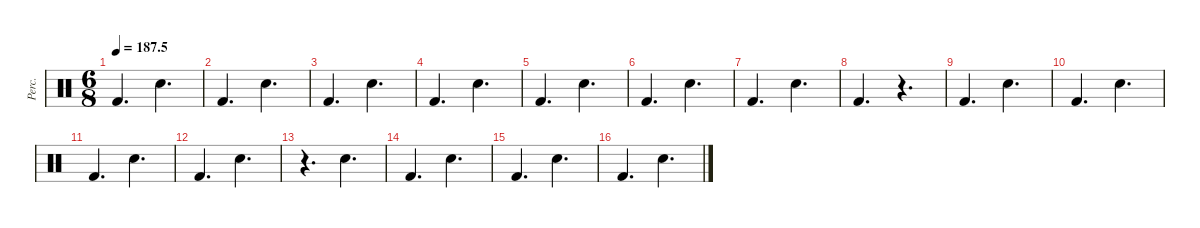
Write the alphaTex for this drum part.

\defaultSystemsLayout 4
\hideDynamics
\bracketExtendMode groupsimilarinstruments
\otherSystemsTrackNameOrientation horizontal
\track ("Percussions" "Perc.") {instrument percussion}
\staff {score}
\articulation defaults
\ts (6 8)
\tempo
187.5
\accidentals auto
\clef neutral
\ottava regular
\simile none
\ks c "Kick (hit) 2".4{d dy mf beam Up} "Snare (hit) 2".4{d beam Down}
|
"Kick (hit) 2".4{d beam Up} "Snare (hit) 2".4{d beam Down} |
"Kick (hit) 2".4{d beam Up} "Snare (hit) 2".4{d beam Down} |
"Kick (hit) 2".4{d beam Up} "Snare (hit) 2".4{d beam Down} |
"Kick (hit) 2".4{d beam Up} "Snare (hit) 2".4{d beam Down} |
"Kick (hit) 2".4{d beam Up} "Snare (hit) 2".4{d beam Down} |
"Kick (hit) 2".4{d beam Up} "Snare (hit) 2".4{d beam Down} |
"Kick (hit) 2".4{d beam Up} r.4{d beam Up} |
"Kick (hit) 2".4{d beam Up} "Snare (hit) 2".4{d beam Down} |
"Kick (hit) 2".4{d beam Up} "Snare (hit) 2".4{d beam Down} |
"Kick (hit) 2".4{d beam Up} "Snare (hit) 2".4{d beam Down} |
"Kick (hit) 2".4{d beam Up} "Snare (hit) 2".4{d beam Down} |
r.4{d beam Down} "Snare (hit) 2".4{d beam Down} |
"Kick (hit) 2".4{d beam Up} "Snare (hit) 2".4{d beam Down} |
"Kick (hit) 2".4{d beam Up} "Snare (hit) 2".4{d beam Down} |
"Kick (hit) 2".4{d beam Up} "Snare (hit) 2".4{d beam Down}
